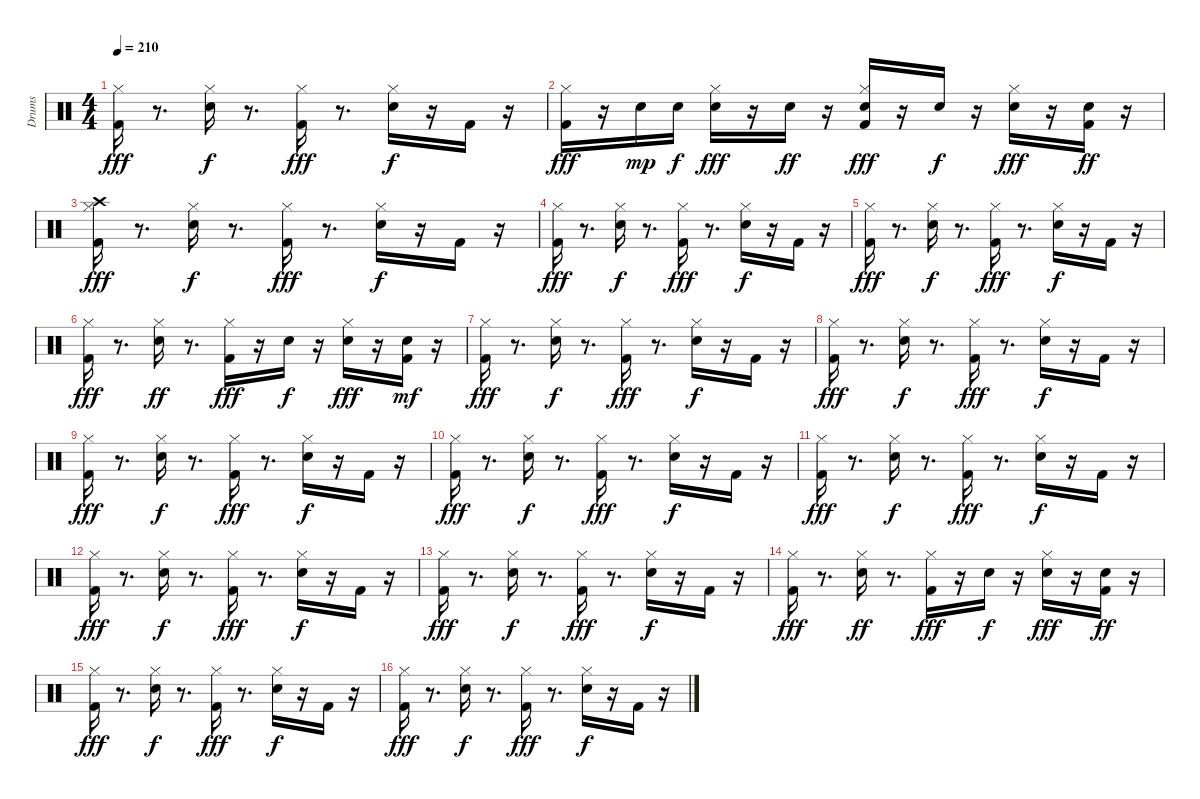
\track ("Drums " "Drums ") {instrument percussion}
\staff {score}
\articulation defaults
\ts (4 4)
\tempo 210
\clef neutral
\ks c
("Kick (hit) 2" "Hi-Hat (closed)").16{dy fff} r.8{d} ("Snare (hit) 2" "Hi-Hat (closed)").16{dy f} r.8{d} ("Kick (hit) 2" "Hi-Hat (closed)").16{dy fff} r.8{d} ("Snare (hit) 2" "Hi-Hat (closed)").16{dy f} r.16 "Kick (hit) 2".16 r.16 |
("Kick (hit) 2" "Hi-Hat (closed)").16{dy fff} r.16 "Snare (hit) 2".16{dy mp} "Snare (hit) 2".16{dy f} ("Snare (hit) 2" "Hi-Hat (closed)").16{dy fff} r.16 "Snare (hit) 2".16{dy ff} r.16 ("Kick (hit) 2" "Snare (hit) 2" "Hi-Hat (closed)").16{dy fff} r.16 "Snare (hit) 2".16{dy f} r.16 ("Snare (hit) 2" "Hi-Hat (closed)").16{dy fff} r.16 ("Kick (hit) 2" "Snare (hit) 2").16{dy ff} r.16 |
("Kick (hit) 2" "Hi-Hat (closed)" "Crash high (hit)").16{dy fff} r.8{d} ("Snare (hit) 2" "Hi-Hat (closed)").16{dy f} r.8{d} ("Kick (hit) 2" "Hi-Hat (closed)").16{dy fff} r.8{d} ("Snare (hit) 2" "Hi-Hat (closed)").16{dy f} r.16 "Kick (hit) 2".16 r.16 |
("Kick (hit) 2" "Hi-Hat (closed)").16{dy fff} r.8{d} ("Snare (hit) 2" "Hi-Hat (closed)").16{dy f} r.8{d} ("Kick (hit) 2" "Hi-Hat (closed)").16{dy fff} r.8{d} ("Snare (hit) 2" "Hi-Hat (closed)").16{dy f} r.16 "Kick (hit) 2".16 r.16 |
("Kick (hit) 2" "Hi-Hat (closed)").16{dy fff} r.8{d} ("Snare (hit) 2" "Hi-Hat (closed)").16{dy f} r.8{d} ("Kick (hit) 2" "Hi-Hat (closed)").16{dy fff} r.8{d} ("Snare (hit) 2" "Hi-Hat (closed)").16{dy f} r.16 "Kick (hit) 2".16 r.16 |
("Kick (hit) 2" "Hi-Hat (closed)").16{dy fff} r.8{d} ("Snare (hit) 2" "Hi-Hat (closed)").16{dy ff} r.8{d} ("Kick (hit) 2" "Hi-Hat (closed)").16{dy fff} r.16 "Snare (hit) 2".16{dy f} r.16 ("Snare (hit) 2" "Hi-Hat (closed)").16{dy fff} r.16 ("Kick (hit) 2" "Snare (hit) 2").16{dy mf} r.16 |
("Kick (hit) 2" "Hi-Hat (closed)").16{dy fff} r.8{d} ("Snare (hit) 2" "Hi-Hat (closed)").16{dy f} r.8{d} ("Kick (hit) 2" "Hi-Hat (closed)").16{dy fff} r.8{d} ("Snare (hit) 2" "Hi-Hat (closed)").16{dy f} r.16 "Kick (hit) 2".16 r.16 |
("Kick (hit) 2" "Hi-Hat (closed)").16{dy fff} r.8{d} ("Snare (hit) 2" "Hi-Hat (closed)").16{dy f} r.8{d} ("Kick (hit) 2" "Hi-Hat (closed)").16{dy fff} r.8{d} ("Snare (hit) 2" "Hi-Hat (closed)").16{dy f} r.16 "Kick (hit) 2".16 r.16 |
("Kick (hit) 2" "Hi-Hat (closed)").16{dy fff} r.8{d} ("Snare (hit) 2" "Hi-Hat (closed)").16{dy f} r.8{d} ("Kick (hit) 2" "Hi-Hat (closed)").16{dy fff} r.8{d} ("Snare (hit) 2" "Hi-Hat (closed)").16{dy f} r.16 "Kick (hit) 2".16 r.16 |
("Kick (hit) 2" "Hi-Hat (closed)").16{dy fff} r.8{d} ("Snare (hit) 2" "Hi-Hat (closed)").16{dy f} r.8{d} ("Kick (hit) 2" "Hi-Hat (closed)").16{dy fff} r.8{d} ("Snare (hit) 2" "Hi-Hat (closed)").16{dy f} r.16 "Kick (hit) 2".16 r.16 |
("Kick (hit) 2" "Hi-Hat (closed)").16{dy fff} r.8{d} ("Snare (hit) 2" "Hi-Hat (closed)").16{dy f} r.8{d} ("Kick (hit) 2" "Hi-Hat (closed)").16{dy fff} r.8{d} ("Snare (hit) 2" "Hi-Hat (closed)").16{dy f} r.16 "Kick (hit) 2".16 r.16 |
("Kick (hit) 2" "Hi-Hat (closed)").16{dy fff} r.8{d} ("Snare (hit) 2" "Hi-Hat (closed)").16{dy f} r.8{d} ("Kick (hit) 2" "Hi-Hat (closed)").16{dy fff} r.8{d} ("Snare (hit) 2" "Hi-Hat (closed)").16{dy f} r.16 "Kick (hit) 2".16 r.16 |
("Kick (hit) 2" "Hi-Hat (closed)").16{dy fff} r.8{d} ("Snare (hit) 2" "Hi-Hat (closed)").16{dy f} r.8{d} ("Kick (hit) 2" "Hi-Hat (closed)").16{dy fff} r.8{d} ("Snare (hit) 2" "Hi-Hat (closed)").16{dy f} r.16 "Kick (hit) 2".16 r.16 |
("Kick (hit) 2" "Hi-Hat (closed)").16{dy fff} r.8{d} ("Snare (hit) 2" "Hi-Hat (closed)").16{dy ff} r.8{d} ("Kick (hit) 2" "Hi-Hat (closed)").16{dy fff} r.16 "Snare (hit) 2".16{dy f} r.16 ("Snare (hit) 2" "Hi-Hat (closed)").16{dy fff} r.16 ("Kick (hit) 2" "Snare (hit) 2").16{dy ff} r.16 |
("Kick (hit) 2" "Hi-Hat (closed)").16{dy fff} r.8{d} ("Snare (hit) 2" "Hi-Hat (closed)").16{dy f} r.8{d} ("Kick (hit) 2" "Hi-Hat (closed)").16{dy fff} r.8{d} ("Snare (hit) 2" "Hi-Hat (closed)").16{dy f} r.16 "Kick (hit) 2".16 r.16 |
("Kick (hit) 2" "Hi-Hat (closed)").16{dy fff} r.8{d} ("Snare (hit) 2" "Hi-Hat (closed)").16{dy f} r.8{d} ("Kick (hit) 2" "Hi-Hat (closed)").16{dy fff} r.8{d} ("Snare (hit) 2" "Hi-Hat (closed)").16{dy f} r.16 "Kick (hit) 2".16 r.16
